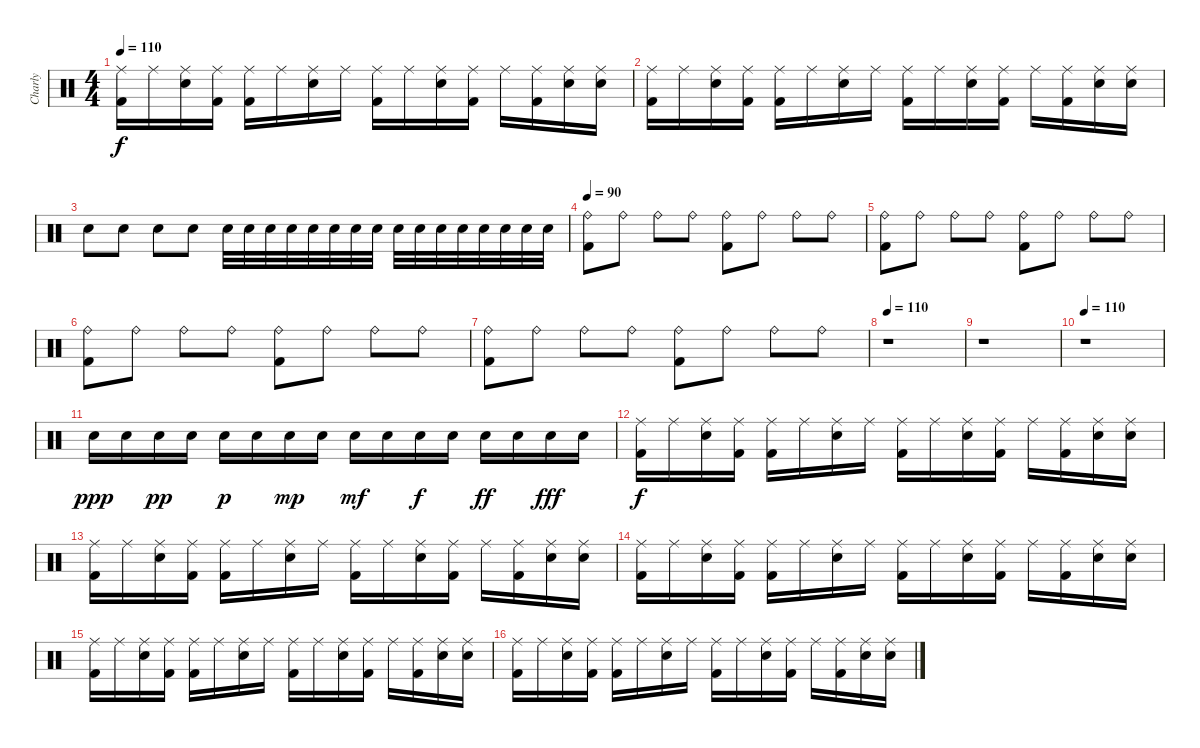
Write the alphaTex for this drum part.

\track ("Charly" "Charly") {instrument percussion}
\staff {score}
\articulation defaults
\ts (4 4)
\tempo 110
\clef neutral
\ks c
("Ride (middle)" "Kick (hit) 2").16{dy f} "Ride (middle)".16 ("Ride (middle)" "Electric Snare (hit)").16 ("Ride (middle)" "Kick (hit) 2").16 ("Ride (middle)" "Kick (hit) 2").16 "Ride (middle)".16 ("Ride (middle)" "Electric Snare (hit)").16 "Ride (middle)".16 ("Ride (middle)" "Kick (hit) 2").16 "Ride (middle)".16 ("Ride (middle)" "Electric Snare (hit)").16 ("Ride (middle)" "Kick (hit) 2").16 "Ride (middle)".16 ("Ride (middle)" "Kick (hit) 2").16 ("Ride (middle)" "Electric Snare (hit)").16 ("Ride (middle)" "Electric Snare (hit)").16 |
("Ride (middle)" "Kick (hit) 2").16 "Ride (middle)".16 ("Ride (middle)" "Electric Snare (hit)").16 ("Ride (middle)" "Kick (hit) 2").16 ("Ride (middle)" "Kick (hit) 2").16 "Ride (middle)".16 ("Ride (middle)" "Electric Snare (hit)").16 "Ride (middle)".16 ("Ride (middle)" "Kick (hit) 2").16 "Ride (middle)".16 ("Ride (middle)" "Electric Snare (hit)").16 ("Ride (middle)" "Kick (hit) 2").16 "Ride (middle)".16 ("Ride (middle)" "Kick (hit) 2").16 ("Ride (middle)" "Electric Snare (hit)").16 ("Ride (middle)" "Electric Snare (hit)").16 |
"Electric Snare (hit)".8 "Electric Snare (hit)".8 "Electric Snare (hit)".8 "Electric Snare (hit)".8 "Electric Snare (hit)".32 "Electric Snare (hit)".32 "Electric Snare (hit)".32 "Electric Snare (hit)".32 "Electric Snare (hit)".32 "Electric Snare (hit)".32 "Electric Snare (hit)".32 "Electric Snare (hit)".32 "Electric Snare (hit)".32 "Electric Snare (hit)".32 "Electric Snare (hit)".32 "Electric Snare (hit)".32 "Electric Snare (hit)".32 "Electric Snare (hit)".32 "Electric Snare (hit)".32 "Electric Snare (hit)".32 |
\tempo 90
("Ride (bell)" "Kick (hit) 2").8 "Ride (bell)".8 "Ride (bell)".8 "Ride (bell)".8 ("Ride (bell)" "Kick (hit) 2").8 "Ride (bell)".8 "Ride (bell)".8 "Ride (bell)".8 |
("Ride (bell)" "Kick (hit) 2").8 "Ride (bell)".8 "Ride (bell)".8 "Ride (bell)".8 ("Ride (bell)" "Kick (hit) 2").8 "Ride (bell)".8 "Ride (bell)".8 "Ride (bell)".8 |
("Ride (bell)" "Kick (hit) 2").8 "Ride (bell)".8 "Ride (bell)".8 "Ride (bell)".8 ("Ride (bell)" "Kick (hit) 2").8 "Ride (bell)".8 "Ride (bell)".8 "Ride (bell)".8 |
("Ride (bell)" "Kick (hit) 2").8 "Ride (bell)".8 "Ride (bell)".8 "Ride (bell)".8 ("Ride (bell)" "Kick (hit) 2").8 "Ride (bell)".8 "Ride (bell)".8 "Ride (bell)".8 |
\tempo 110
r.1 |
r.1 |
\tempo 110
r.1 |
"Electric Snare (hit)".16{dy ppp} "Electric Snare (hit)".16 "Electric Snare (hit)".16{dy pp} "Electric Snare (hit)".16 "Electric Snare (hit)".16{dy p} "Electric Snare (hit)".16 "Electric Snare (hit)".16{dy mp} "Electric Snare (hit)".16 "Electric Snare (hit)".16{dy mf} "Electric Snare (hit)".16 "Electric Snare (hit)".16{dy f} "Electric Snare (hit)".16 "Electric Snare (hit)".16{dy ff} "Electric Snare (hit)".16 "Electric Snare (hit)".16{dy fff} "Electric Snare (hit)".16 |
("Ride (middle)" "Kick (hit) 2").16{dy f} "Ride (middle)".16 ("Ride (middle)" "Electric Snare (hit)").16 ("Ride (middle)" "Kick (hit) 2").16 ("Ride (middle)" "Kick (hit) 2").16 "Ride (middle)".16 ("Ride (middle)" "Electric Snare (hit)").16 "Ride (middle)".16 ("Ride (middle)" "Kick (hit) 2").16 "Ride (middle)".16 ("Ride (middle)" "Electric Snare (hit)").16 ("Ride (middle)" "Kick (hit) 2").16 "Ride (middle)".16 ("Ride (middle)" "Kick (hit) 2").16 ("Ride (middle)" "Electric Snare (hit)").16 ("Ride (middle)" "Electric Snare (hit)").16 |
("Ride (middle)" "Kick (hit) 2").16 "Ride (middle)".16 ("Ride (middle)" "Electric Snare (hit)").16 ("Ride (middle)" "Kick (hit) 2").16 ("Ride (middle)" "Kick (hit) 2").16 "Ride (middle)".16 ("Ride (middle)" "Electric Snare (hit)").16 "Ride (middle)".16 ("Ride (middle)" "Kick (hit) 2").16 "Ride (middle)".16 ("Ride (middle)" "Electric Snare (hit)").16 ("Ride (middle)" "Kick (hit) 2").16 "Ride (middle)".16 ("Ride (middle)" "Kick (hit) 2").16 ("Ride (middle)" "Electric Snare (hit)").16 ("Ride (middle)" "Electric Snare (hit)").16 |
("Ride (middle)" "Kick (hit) 2").16 "Ride (middle)".16 ("Ride (middle)" "Electric Snare (hit)").16 ("Ride (middle)" "Kick (hit) 2").16 ("Ride (middle)" "Kick (hit) 2").16 "Ride (middle)".16 ("Ride (middle)" "Electric Snare (hit)").16 "Ride (middle)".16 ("Ride (middle)" "Kick (hit) 2").16 "Ride (middle)".16 ("Ride (middle)" "Electric Snare (hit)").16 ("Ride (middle)" "Kick (hit) 2").16 "Ride (middle)".16 ("Ride (middle)" "Kick (hit) 2").16 ("Ride (middle)" "Electric Snare (hit)").16 ("Ride (middle)" "Electric Snare (hit)").16 |
("Ride (middle)" "Kick (hit) 2").16 "Ride (middle)".16 ("Ride (middle)" "Electric Snare (hit)").16 ("Ride (middle)" "Kick (hit) 2").16 ("Ride (middle)" "Kick (hit) 2").16 "Ride (middle)".16 ("Ride (middle)" "Electric Snare (hit)").16 "Ride (middle)".16 ("Ride (middle)" "Kick (hit) 2").16 "Ride (middle)".16 ("Ride (middle)" "Electric Snare (hit)").16 ("Ride (middle)" "Kick (hit) 2").16 "Ride (middle)".16 ("Ride (middle)" "Kick (hit) 2").16 ("Ride (middle)" "Electric Snare (hit)").16 ("Ride (middle)" "Electric Snare (hit)").16 |
("Ride (middle)" "Kick (hit) 2").16 "Ride (middle)".16 ("Ride (middle)" "Electric Snare (hit)").16 ("Ride (middle)" "Kick (hit) 2").16 ("Ride (middle)" "Kick (hit) 2").16 "Ride (middle)".16 ("Ride (middle)" "Electric Snare (hit)").16 "Ride (middle)".16 ("Ride (middle)" "Kick (hit) 2").16 "Ride (middle)".16 ("Ride (middle)" "Electric Snare (hit)").16 ("Ride (middle)" "Kick (hit) 2").16 "Ride (middle)".16 ("Ride (middle)" "Kick (hit) 2").16 ("Ride (middle)" "Electric Snare (hit)").16 ("Ride (middle)" "Electric Snare (hit)").16
